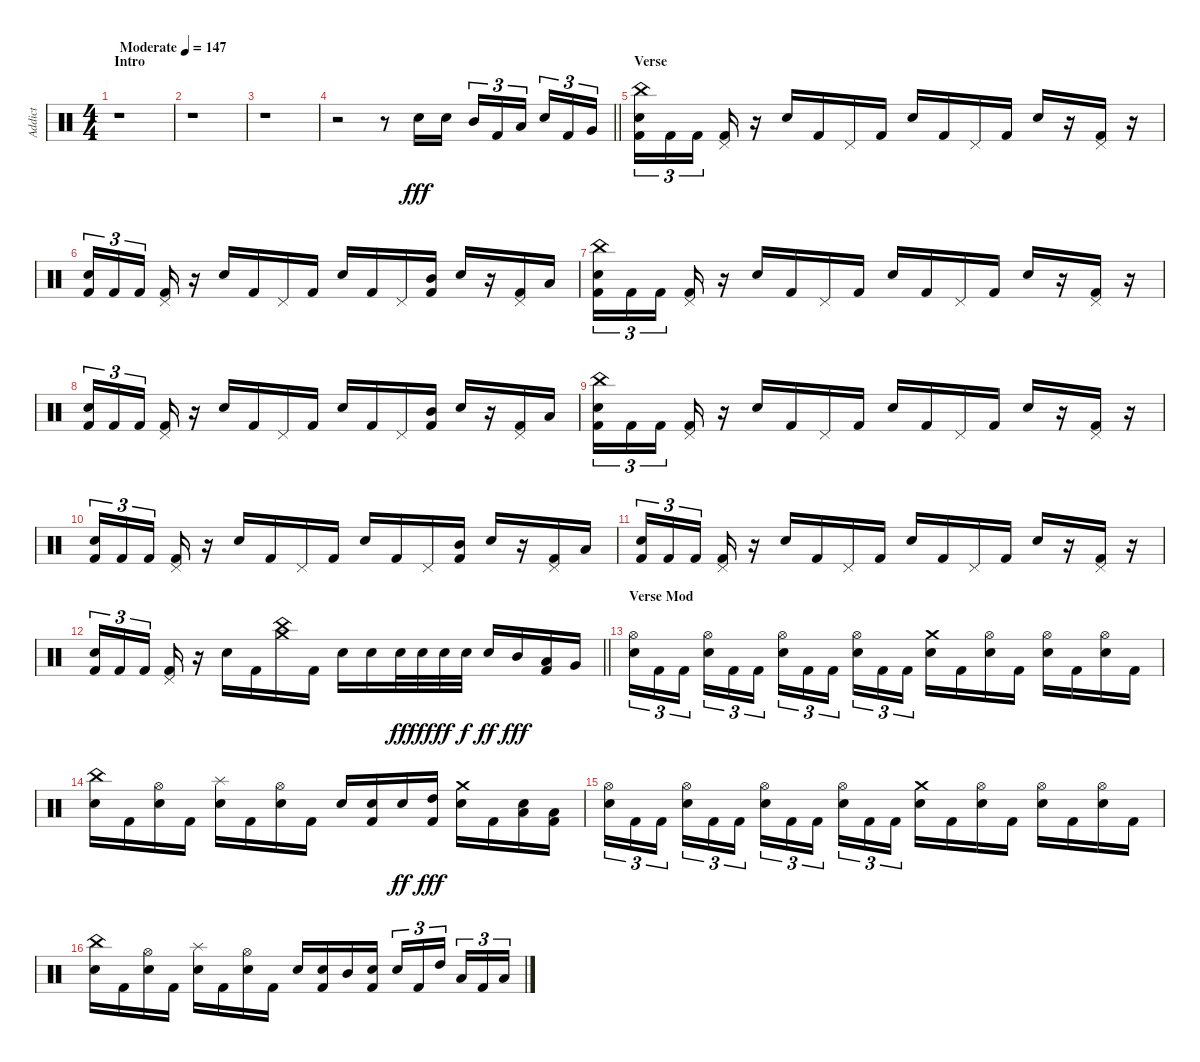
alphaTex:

\track ("Addict" "Addict") {instrument percussion}
\staff {score}
\articulation defaults
\ts (4 4)
\section ("" "Intro")
\tempo (147 "Moderate")
\clef neutral
\ks c
r.1{dy fff} |
r.1 |
r.1 |
\barLineRight lightlight
r.2 r.8 "Snare (hit) 2".16 "Snare (hit) 2".16 "Mid Tom (hit)".16{tu (3 2)} "Kick (hit) 2".16{tu (3 2)} "Low Tom (hit)".16{tu (3 2) beam splitsecondary} "Snare (hit) 2".16{tu (3 2)} "Kick (hit) 2".16{tu (3 2)} "Very Low Tom (hit)".16{tu (3 2)} |
\section ("" "Verse")
("Kick (hit) 2" "Snare (hit) 2" "China (hit)").16{tu (3 2)} "Kick (hit) 2".16{tu (3 2)} "Kick (hit) 2".16{tu (3 2) beam splitsecondary} ("Kick (hit) 2" "Pedal Hi-Hat (hit)").16 r.16 "Snare (hit) 2".16 "Kick (hit) 2".16 "Pedal Hi-Hat (hit)".16 "Kick (hit) 2".16 "Snare (hit) 2".16 "Kick (hit) 2".16 "Pedal Hi-Hat (hit)".16 "Kick (hit) 2".16 "Snare (hit) 2".16 r.16 ("Kick (hit) 2" "Pedal Hi-Hat (hit)").16 r.16 |
("Kick (hit) 2" "Snare (hit) 2").16{tu (3 2)} "Kick (hit) 2".16{tu (3 2)} "Kick (hit) 2".16{tu (3 2) beam splitsecondary} ("Kick (hit) 2" "Pedal Hi-Hat (hit)").16 r.16 "Snare (hit) 2".16 "Kick (hit) 2".16 "Pedal Hi-Hat (hit)".16 "Kick (hit) 2".16 "Snare (hit) 2".16 "Kick (hit) 2".16 "Pedal Hi-Hat (hit)".16 ("Kick (hit) 2" "Mid Tom (hit)").16 "Snare (hit) 2".16 r.16 ("Kick (hit) 2" "Pedal Hi-Hat (hit)").16 "Low Tom (hit)".16 |
("Kick (hit) 2" "Snare (hit) 2" "China (hit)").16{tu (3 2)} "Kick (hit) 2".16{tu (3 2)} "Kick (hit) 2".16{tu (3 2) beam splitsecondary} ("Kick (hit) 2" "Pedal Hi-Hat (hit)").16 r.16 "Snare (hit) 2".16 "Kick (hit) 2".16 "Pedal Hi-Hat (hit)".16 "Kick (hit) 2".16 "Snare (hit) 2".16 "Kick (hit) 2".16 "Pedal Hi-Hat (hit)".16 "Kick (hit) 2".16 "Snare (hit) 2".16 r.16 ("Kick (hit) 2" "Pedal Hi-Hat (hit)").16 r.16 |
("Kick (hit) 2" "Snare (hit) 2").16{tu (3 2)} "Kick (hit) 2".16{tu (3 2)} "Kick (hit) 2".16{tu (3 2) beam splitsecondary} ("Kick (hit) 2" "Pedal Hi-Hat (hit)").16 r.16 "Snare (hit) 2".16 "Kick (hit) 2".16 "Pedal Hi-Hat (hit)".16 "Kick (hit) 2".16 "Snare (hit) 2".16 "Kick (hit) 2".16 "Pedal Hi-Hat (hit)".16 ("Kick (hit) 2" "Mid Tom (hit)").16 "Snare (hit) 2".16 r.16 ("Kick (hit) 2" "Pedal Hi-Hat (hit)").16 "Low Tom (hit)".16 |
("Kick (hit) 2" "Snare (hit) 2" "China (hit)").16{tu (3 2)} "Kick (hit) 2".16{tu (3 2)} "Kick (hit) 2".16{tu (3 2) beam splitsecondary} ("Kick (hit) 2" "Pedal Hi-Hat (hit)").16 r.16 "Snare (hit) 2".16 "Kick (hit) 2".16 "Pedal Hi-Hat (hit)".16 "Kick (hit) 2".16 "Snare (hit) 2".16 "Kick (hit) 2".16 "Pedal Hi-Hat (hit)".16 "Kick (hit) 2".16 "Snare (hit) 2".16 r.16 ("Kick (hit) 2" "Pedal Hi-Hat (hit)").16 r.16 |
("Kick (hit) 2" "Snare (hit) 2").16{tu (3 2)} "Kick (hit) 2".16{tu (3 2)} "Kick (hit) 2".16{tu (3 2) beam splitsecondary} ("Kick (hit) 2" "Pedal Hi-Hat (hit)").16 r.16 "Snare (hit) 2".16 "Kick (hit) 2".16 "Pedal Hi-Hat (hit)".16 "Kick (hit) 2".16 "Snare (hit) 2".16 "Kick (hit) 2".16 "Pedal Hi-Hat (hit)".16 ("Kick (hit) 2" "Mid Tom (hit)").16 "Snare (hit) 2".16 r.16 ("Kick (hit) 2" "Pedal Hi-Hat (hit)").16 "Low Tom (hit)".16 |
("Kick (hit) 2" "Snare (hit) 2").16{tu (3 2)} "Kick (hit) 2".16{tu (3 2)} "Kick (hit) 2".16{tu (3 2) beam splitsecondary} ("Kick (hit) 2" "Pedal Hi-Hat (hit)").16 r.16 "Snare (hit) 2".16 "Kick (hit) 2".16 "Pedal Hi-Hat (hit)".16 "Kick (hit) 2".16 "Snare (hit) 2".16 "Kick (hit) 2".16 "Pedal Hi-Hat (hit)".16 "Kick (hit) 2".16 "Snare (hit) 2".16 r.16 ("Kick (hit) 2" "Pedal Hi-Hat (hit)").16 r.16 |
\barLineRight lightlight
("Kick (hit) 2" "Snare (hit) 2").16{tu (3 2)} "Kick (hit) 2".16{tu (3 2)} "Kick (hit) 2".16{tu (3 2) beam splitsecondary} ("Kick (hit) 2" "Pedal Hi-Hat (hit)").16 r.16 "Snare (hit) 2".16 "Kick (hit) 2".16 ("Crash medium (hit)" "China (hit)").16 "Kick (hit) 2".16 "Snare (hit) 2".16 "Snare (hit) 2".16 "Snare (hit) 2".32{dy ff} "Snare (hit) 2".32{dy fff} "Snare (hit) 2".32{dy ff} "Snare (hit) 2".32{dy f} "Snare (hit) 2".16{dy ff} "Mid Tom (hit)".16{dy fff} ("Kick (hit) 2" "Low Tom (hit)").16 "Very Low Tom (hit)".16 |
\section ("" "Verse Mod")
("Snare (hit) 2" "Hi-Hat (open)").16{tu (3 2)} "Kick (hit) 2".16{tu (3 2)} "Kick (hit) 2".16{tu (3 2) beam splitsecondary} ("Snare (hit) 2" "Hi-Hat (open)").16{tu (3 2)} "Kick (hit) 2".16{tu (3 2)} "Kick (hit) 2".16{tu (3 2)} ("Snare (hit) 2" "Hi-Hat (open)").16{tu (3 2)} "Kick (hit) 2".16{tu (3 2)} "Kick (hit) 2".16{tu (3 2) beam splitsecondary} ("Snare (hit) 2" "Hi-Hat (open)").16{tu (3 2)} "Kick (hit) 2".16{tu (3 2)} "Kick (hit) 2".16{tu (3 2)} ("Snare (hit) 2" "Crash medium (hit)").16 "Kick (hit) 2".16 ("Snare (hit) 2" "Hi-Hat (open)").16 "Kick (hit) 2".16 ("Snare (hit) 2" "Hi-Hat (open)").16 "Kick (hit) 2".16 ("Snare (hit) 2" "Hi-Hat (open)").16 "Kick (hit) 2".16 |
("Snare (hit) 2" "China (hit)").16 "Kick (hit) 2".16 ("Snare (hit) 2" "Hi-Hat (open)").16 "Kick (hit) 2".16 ("Snare (hit) 2" "Splash (hit)").16 "Kick (hit) 2".16 ("Snare (hit) 2" "Hi-Hat (open)").16 "Kick (hit) 2".16 "Snare (hit) 2".16 ("Kick (hit) 2" "Snare (hit) 2").16 "Snare (hit) 2".16{dy ff} ("Kick (hit) 2" "High Tom (hit)").16{dy fff} ("Snare (hit) 2" "Crash medium (hit)").16 "Kick (hit) 2".16 ("Snare (hit) 2" "Low Tom (hit)").16 ("Kick (hit) 2" "Low Floor Tom (hit)").16 |
("Snare (hit) 2" "Hi-Hat (open)").16{tu (3 2)} "Kick (hit) 2".16{tu (3 2)} "Kick (hit) 2".16{tu (3 2) beam splitsecondary} ("Snare (hit) 2" "Hi-Hat (open)").16{tu (3 2)} "Kick (hit) 2".16{tu (3 2)} "Kick (hit) 2".16{tu (3 2)} ("Snare (hit) 2" "Hi-Hat (open)").16{tu (3 2)} "Kick (hit) 2".16{tu (3 2)} "Kick (hit) 2".16{tu (3 2) beam splitsecondary} ("Snare (hit) 2" "Hi-Hat (open)").16{tu (3 2)} "Kick (hit) 2".16{tu (3 2)} "Kick (hit) 2".16{tu (3 2)} ("Snare (hit) 2" "Crash medium (hit)").16 "Kick (hit) 2".16 ("Snare (hit) 2" "Hi-Hat (open)").16 "Kick (hit) 2".16 ("Snare (hit) 2" "Hi-Hat (open)").16 "Kick (hit) 2".16 ("Snare (hit) 2" "Hi-Hat (open)").16 "Kick (hit) 2".16 |
("Snare (hit) 2" "China (hit)").16 "Kick (hit) 2".16 ("Snare (hit) 2" "Hi-Hat (open)").16 "Kick (hit) 2".16 ("Snare (hit) 2" "Splash (hit)").16 "Kick (hit) 2".16 ("Snare (hit) 2" "Hi-Hat (open)").16 "Kick (hit) 2".16 "Snare (hit) 2".16 ("Kick (hit) 2" "Snare (hit) 2").16 "Mid Tom (hit)".16 ("Kick (hit) 2" "Snare (hit) 2").16 "Snare (hit) 2".16{tu (3 2)} "Kick (hit) 2".16{tu (3 2)} "High Tom (hit)".16{tu (3 2) beam splitsecondary} "Low Floor Tom (hit)".16{tu (3 2)} "Kick (hit) 2".16{tu (3 2)} "Low Tom (hit)".16{tu (3 2)}
